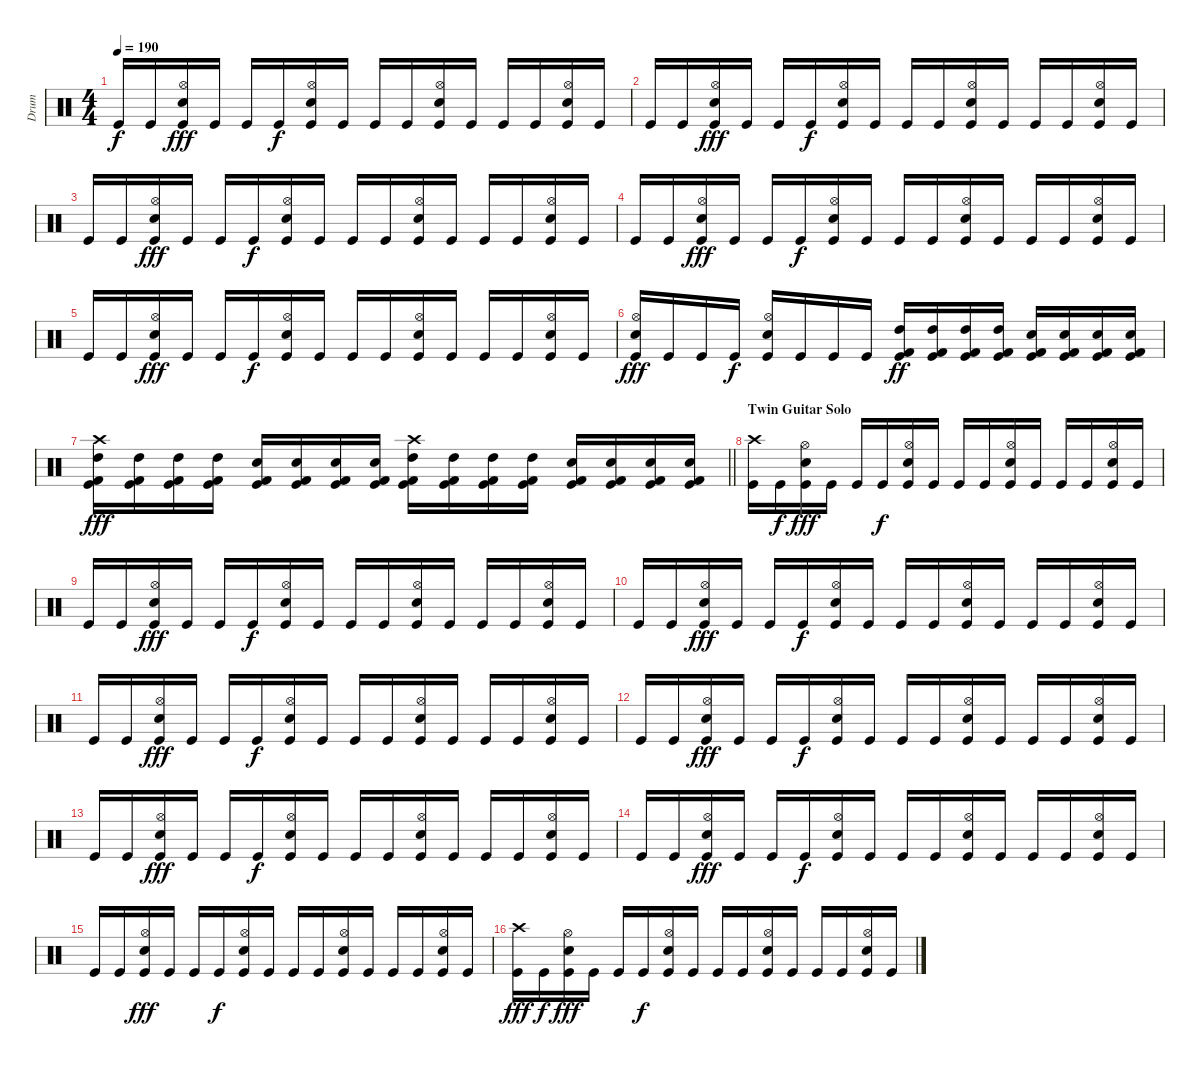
\track ("Drum" "Drum") {instrument percussion}
\staff {score}
\articulation defaults
\ts (4 4)
\tempo 190
\clef neutral
\ks c "Kick (hit)".16{dy f} "Kick (hit)".16
("Hi-Hat (open)" "Snare (hit) 2" "Kick (hit)").16{dy fff} "Kick (hit)".16 "Kick (hit)".16 "Kick (hit)".16{dy f} ("Hi-Hat (open)" "Snare (hit) 2" "Kick (hit)").16 "Kick (hit)".16 "Kick (hit)".16 "Kick (hit)".16 ("Hi-Hat (open)" "Snare (hit) 2" "Kick (hit)").16 "Kick (hit)".16 "Kick (hit)".16 "Kick (hit)".16 ("Hi-Hat (open)" "Snare (hit) 2" "Kick (hit)").16 "Kick (hit)".16 |
"Kick (hit)".16 "Kick (hit)".16 ("Hi-Hat (open)" "Snare (hit) 2" "Kick (hit)").16{dy fff} "Kick (hit)".16 "Kick (hit)".16 "Kick (hit)".16{dy f} ("Hi-Hat (open)" "Snare (hit) 2" "Kick (hit)").16 "Kick (hit)".16 "Kick (hit)".16 "Kick (hit)".16 ("Hi-Hat (open)" "Snare (hit) 2" "Kick (hit)").16 "Kick (hit)".16 "Kick (hit)".16 "Kick (hit)".16 ("Hi-Hat (open)" "Snare (hit) 2" "Kick (hit)").16 "Kick (hit)".16 |
"Kick (hit)".16 "Kick (hit)".16 ("Hi-Hat (open)" "Snare (hit) 2" "Kick (hit)").16{dy fff} "Kick (hit)".16 "Kick (hit)".16 "Kick (hit)".16{dy f} ("Hi-Hat (open)" "Snare (hit) 2" "Kick (hit)").16 "Kick (hit)".16 "Kick (hit)".16 "Kick (hit)".16 ("Hi-Hat (open)" "Snare (hit) 2" "Kick (hit)").16 "Kick (hit)".16 "Kick (hit)".16 "Kick (hit)".16 ("Hi-Hat (open)" "Snare (hit) 2" "Kick (hit)").16 "Kick (hit)".16 |
"Kick (hit)".16 "Kick (hit)".16 ("Hi-Hat (open)" "Snare (hit) 2" "Kick (hit)").16{dy fff} "Kick (hit)".16 "Kick (hit)".16 "Kick (hit)".16{dy f} ("Hi-Hat (open)" "Snare (hit) 2" "Kick (hit)").16 "Kick (hit)".16 "Kick (hit)".16 "Kick (hit)".16 ("Hi-Hat (open)" "Snare (hit) 2" "Kick (hit)").16 "Kick (hit)".16 "Kick (hit)".16 "Kick (hit)".16 ("Hi-Hat (open)" "Snare (hit) 2" "Kick (hit)").16 "Kick (hit)".16 |
"Kick (hit)".16 "Kick (hit)".16 ("Hi-Hat (open)" "Snare (hit) 2" "Kick (hit)").16{dy fff} "Kick (hit)".16 "Kick (hit)".16 "Kick (hit)".16{dy f} ("Hi-Hat (open)" "Snare (hit) 2" "Kick (hit)").16 "Kick (hit)".16 "Kick (hit)".16 "Kick (hit)".16 ("Hi-Hat (open)" "Snare (hit) 2" "Kick (hit)").16 "Kick (hit)".16 "Kick (hit)".16 "Kick (hit)".16 ("Hi-Hat (open)" "Snare (hit) 2" "Kick (hit)").16 "Kick (hit)".16 |
("Hi-Hat (open)" "Snare (hit) 2" "Kick (hit)").16{dy fff} "Kick (hit)".16 "Kick (hit)".16 "Kick (hit)".16{dy f} ("Hi-Hat (open)" "Snare (hit) 2" "Kick (hit)").16 "Kick (hit)".16 "Kick (hit)".16 "Kick (hit)".16 ("High Tom (hit)" "Kick (hit) 2" "Kick (hit)").16{dy ff} ("High Tom (hit)" "Kick (hit) 2" "Kick (hit)").16 ("High Tom (hit)" "Kick (hit) 2" "Kick (hit)").16 ("High Tom (hit)" "Kick (hit) 2" "Kick (hit)").16 ("Snare (hit) 2" "Kick (hit) 2" "Kick (hit)").16 ("Snare (hit) 2" "Kick (hit) 2" "Kick (hit)").16 ("Snare (hit) 2" "Kick (hit) 2" "Kick (hit)").16 ("Snare (hit) 2" "Kick (hit) 2" "Kick (hit)").16 |
\barLineRight lightlight
("Crash high (hit)" "High Tom (hit)" "Kick (hit) 2" "Kick (hit)").16{dy fff} ("High Tom (hit)" "Kick (hit) 2" "Kick (hit)").16 ("High Tom (hit)" "Kick (hit) 2" "Kick (hit)").16 ("High Tom (hit)" "Kick (hit) 2" "Kick (hit)").16 ("Snare (hit) 2" "Kick (hit) 2" "Kick (hit)").16 ("Snare (hit) 2" "Kick (hit) 2" "Kick (hit)").16 ("Snare (hit) 2" "Kick (hit) 2" "Kick (hit)").16 ("Snare (hit) 2" "Kick (hit) 2" "Kick (hit)").16 ("Crash high (hit)" "High Tom (hit)" "Kick (hit) 2" "Kick (hit)").16 ("High Tom (hit)" "Kick (hit) 2" "Kick (hit)").16 ("High Tom (hit)" "Kick (hit) 2" "Kick (hit)").16 ("High Tom (hit)" "Kick (hit) 2" "Kick (hit)").16 ("Electric Snare (hit)" "Kick (hit) 2" "Kick (hit)").16 ("Electric Snare (hit)" "Kick (hit) 2" "Kick (hit)").16 ("Electric Snare (hit)" "Kick (hit) 2" "Kick (hit)").16 ("Electric Snare (hit)" "Kick (hit) 2" "Kick (hit)").16 |
\section ("" "Twin Guitar Solo")
("Crash high (hit)" "Kick (hit)").16 "Kick (hit)".16{dy f} ("Hi-Hat (open)" "Snare (hit) 2" "Kick (hit)").16{dy fff} "Kick (hit)".16 "Kick (hit)".16 "Kick (hit)".16{dy f} ("Hi-Hat (open)" "Snare (hit) 2" "Kick (hit)").16 "Kick (hit)".16 "Kick (hit)".16 "Kick (hit)".16 ("Hi-Hat (open)" "Snare (hit) 2" "Kick (hit)").16 "Kick (hit)".16 "Kick (hit)".16 "Kick (hit)".16 ("Hi-Hat (open)" "Snare (hit) 2" "Kick (hit)").16 "Kick (hit)".16 |
"Kick (hit)".16 "Kick (hit)".16 ("Hi-Hat (open)" "Snare (hit) 2" "Kick (hit)").16{dy fff} "Kick (hit)".16 "Kick (hit)".16 "Kick (hit)".16{dy f} ("Hi-Hat (open)" "Snare (hit) 2" "Kick (hit)").16 "Kick (hit)".16 "Kick (hit)".16 "Kick (hit)".16 ("Hi-Hat (open)" "Snare (hit) 2" "Kick (hit)").16 "Kick (hit)".16 "Kick (hit)".16 "Kick (hit)".16 ("Hi-Hat (open)" "Snare (hit) 2" "Kick (hit)").16 "Kick (hit)".16 |
"Kick (hit)".16 "Kick (hit)".16 ("Hi-Hat (open)" "Snare (hit) 2" "Kick (hit)").16{dy fff} "Kick (hit)".16 "Kick (hit)".16 "Kick (hit)".16{dy f} ("Hi-Hat (open)" "Snare (hit) 2" "Kick (hit)").16 "Kick (hit)".16 "Kick (hit)".16 "Kick (hit)".16 ("Hi-Hat (open)" "Snare (hit) 2" "Kick (hit)").16 "Kick (hit)".16 "Kick (hit)".16 "Kick (hit)".16 ("Hi-Hat (open)" "Snare (hit) 2" "Kick (hit)").16 "Kick (hit)".16 |
"Kick (hit)".16 "Kick (hit)".16 ("Hi-Hat (open)" "Snare (hit) 2" "Kick (hit)").16{dy fff} "Kick (hit)".16 "Kick (hit)".16 "Kick (hit)".16{dy f} ("Hi-Hat (open)" "Snare (hit) 2" "Kick (hit)").16 "Kick (hit)".16 "Kick (hit)".16 "Kick (hit)".16 ("Hi-Hat (open)" "Snare (hit) 2" "Kick (hit)").16 "Kick (hit)".16 "Kick (hit)".16 "Kick (hit)".16 ("Hi-Hat (open)" "Snare (hit) 2" "Kick (hit)").16 "Kick (hit)".16 |
"Kick (hit)".16 "Kick (hit)".16 ("Hi-Hat (open)" "Snare (hit) 2" "Kick (hit)").16{dy fff} "Kick (hit)".16 "Kick (hit)".16 "Kick (hit)".16{dy f} ("Hi-Hat (open)" "Snare (hit) 2" "Kick (hit)").16 "Kick (hit)".16 "Kick (hit)".16 "Kick (hit)".16 ("Hi-Hat (open)" "Snare (hit) 2" "Kick (hit)").16 "Kick (hit)".16 "Kick (hit)".16 "Kick (hit)".16 ("Hi-Hat (open)" "Snare (hit) 2" "Kick (hit)").16 "Kick (hit)".16 |
"Kick (hit)".16 "Kick (hit)".16 ("Hi-Hat (open)" "Snare (hit) 2" "Kick (hit)").16{dy fff} "Kick (hit)".16 "Kick (hit)".16 "Kick (hit)".16{dy f} ("Hi-Hat (open)" "Snare (hit) 2" "Kick (hit)").16 "Kick (hit)".16 "Kick (hit)".16 "Kick (hit)".16 ("Hi-Hat (open)" "Snare (hit) 2" "Kick (hit)").16 "Kick (hit)".16 "Kick (hit)".16 "Kick (hit)".16 ("Hi-Hat (open)" "Snare (hit) 2" "Kick (hit)").16 "Kick (hit)".16 |
"Kick (hit)".16 "Kick (hit)".16 ("Hi-Hat (open)" "Snare (hit) 2" "Kick (hit)").16{dy fff} "Kick (hit)".16 "Kick (hit)".16 "Kick (hit)".16{dy f} ("Hi-Hat (open)" "Snare (hit) 2" "Kick (hit)").16 "Kick (hit)".16 "Kick (hit)".16 "Kick (hit)".16 ("Hi-Hat (open)" "Snare (hit) 2" "Kick (hit)").16 "Kick (hit)".16 "Kick (hit)".16 "Kick (hit)".16 ("Hi-Hat (open)" "Snare (hit) 2" "Kick (hit)").16 "Kick (hit)".16 |
"Kick (hit)".16 "Kick (hit)".16 ("Hi-Hat (open)" "Snare (hit) 2" "Kick (hit)").16{dy fff} "Kick (hit)".16 "Kick (hit)".16 "Kick (hit)".16{dy f} ("Hi-Hat (open)" "Snare (hit) 2" "Kick (hit)").16 "Kick (hit)".16 "Kick (hit)".16 "Kick (hit)".16 ("Hi-Hat (open)" "Snare (hit) 2" "Kick (hit)").16 "Kick (hit)".16 "Kick (hit)".16 "Kick (hit)".16 ("Hi-Hat (open)" "Snare (hit) 2" "Kick (hit)").16 "Kick (hit)".16 |
("Crash high (hit)" "Kick (hit)").16{dy fff} "Kick (hit)".16{dy f} ("Hi-Hat (open)" "Snare (hit) 2" "Kick (hit)").16{dy fff} "Kick (hit)".16 "Kick (hit)".16 "Kick (hit)".16{dy f} ("Hi-Hat (open)" "Snare (hit) 2" "Kick (hit)").16 "Kick (hit)".16 "Kick (hit)".16 "Kick (hit)".16 ("Hi-Hat (open)" "Snare (hit) 2" "Kick (hit)").16 "Kick (hit)".16 "Kick (hit)".16 "Kick (hit)".16 ("Hi-Hat (open)" "Snare (hit) 2" "Kick (hit)").16 "Kick (hit)".16
